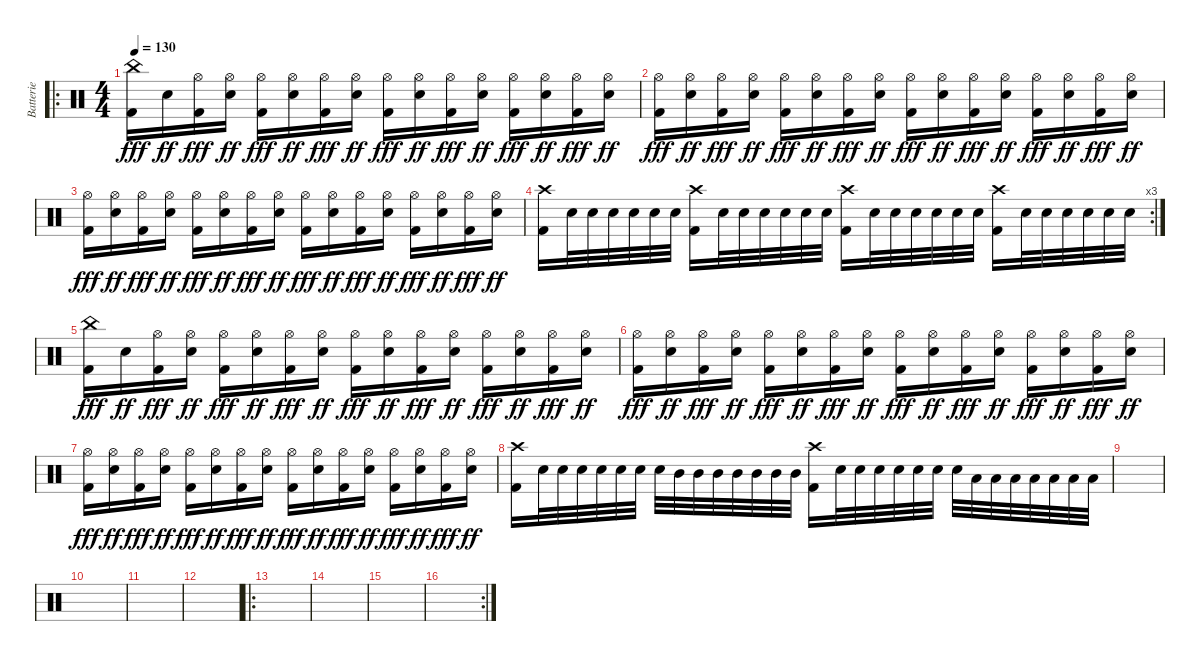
\track ("Batterie" "Batterie") {instrument percussion}
\staff {score}
\articulation defaults
\ro
\ts (4 4)
\tempo 130
\clef neutral
\ks c
("Kick (hit) 2" "China (hit)").16{dy fff} "Snare (hit) 2".16{dy ff} ("Kick (hit) 2" "Hi-Hat (open)").16{dy fff} ("Snare (hit) 2" "Hi-Hat (open)").16{dy ff} ("Kick (hit) 2" "Hi-Hat (open)").16{dy fff} ("Snare (hit) 2" "Hi-Hat (open)").16{dy ff} ("Kick (hit) 2" "Hi-Hat (open)").16{dy fff} ("Snare (hit) 2" "Hi-Hat (open)").16{dy ff} ("Kick (hit) 2" "Hi-Hat (open)").16{dy fff} ("Snare (hit) 2" "Hi-Hat (open)").16{dy ff} ("Kick (hit) 2" "Hi-Hat (open)").16{dy fff} ("Snare (hit) 2" "Hi-Hat (open)").16{dy ff} ("Kick (hit) 2" "Hi-Hat (open)").16{dy fff} ("Snare (hit) 2" "Hi-Hat (open)").16{dy ff} ("Kick (hit) 2" "Hi-Hat (open)").16{dy fff} ("Snare (hit) 2" "Hi-Hat (open)").16{dy ff} |
("Kick (hit) 2" "Hi-Hat (open)").16{dy fff} ("Snare (hit) 2" "Hi-Hat (open)").16{dy ff} ("Kick (hit) 2" "Hi-Hat (open)").16{dy fff} ("Snare (hit) 2" "Hi-Hat (open)").16{dy ff} ("Kick (hit) 2" "Hi-Hat (open)").16{dy fff} ("Snare (hit) 2" "Hi-Hat (open)").16{dy ff} ("Kick (hit) 2" "Hi-Hat (open)").16{dy fff} ("Snare (hit) 2" "Hi-Hat (open)").16{dy ff} ("Kick (hit) 2" "Hi-Hat (open)").16{dy fff} ("Snare (hit) 2" "Hi-Hat (open)").16{dy ff} ("Kick (hit) 2" "Hi-Hat (open)").16{dy fff} ("Snare (hit) 2" "Hi-Hat (open)").16{dy ff} ("Kick (hit) 2" "Hi-Hat (open)").16{dy fff} ("Snare (hit) 2" "Hi-Hat (open)").16{dy ff} ("Kick (hit) 2" "Hi-Hat (open)").16{dy fff} ("Snare (hit) 2" "Hi-Hat (open)").16{dy ff} |
("Kick (hit) 2" "Hi-Hat (open)").16{dy fff} ("Snare (hit) 2" "Hi-Hat (open)").16{dy ff} ("Kick (hit) 2" "Hi-Hat (open)").16{dy fff} ("Snare (hit) 2" "Hi-Hat (open)").16{dy ff} ("Kick (hit) 2" "Hi-Hat (open)").16{dy fff} ("Snare (hit) 2" "Hi-Hat (open)").16{dy ff} ("Kick (hit) 2" "Hi-Hat (open)").16{dy fff} ("Snare (hit) 2" "Hi-Hat (open)").16{dy ff} ("Kick (hit) 2" "Hi-Hat (open)").16{dy fff} ("Snare (hit) 2" "Hi-Hat (open)").16{dy ff} ("Kick (hit) 2" "Hi-Hat (open)").16{dy fff} ("Snare (hit) 2" "Hi-Hat (open)").16{dy ff} ("Kick (hit) 2" "Hi-Hat (open)").16{dy fff} ("Snare (hit) 2" "Hi-Hat (open)").16{dy ff} ("Kick (hit) 2" "Hi-Hat (open)").16{dy fff} ("Snare (hit) 2" "Hi-Hat (open)").16{dy ff} |
\rc 3
("Kick (hit) 2" "Crash high (hit)").16 "Snare (hit) 2".32 "Snare (hit) 2".32 "Snare (hit) 2".32 "Snare (hit) 2".32 "Snare (hit) 2".32 "Snare (hit) 2".32 ("Kick (hit) 2" "Crash high (hit)").16 "Snare (hit) 2".32 "Snare (hit) 2".32 "Snare (hit) 2".32 "Snare (hit) 2".32 "Snare (hit) 2".32 "Snare (hit) 2".32 ("Kick (hit) 2" "Crash high (hit)").16 "Snare (hit) 2".32 "Snare (hit) 2".32 "Snare (hit) 2".32 "Snare (hit) 2".32 "Snare (hit) 2".32 "Snare (hit) 2".32 ("Kick (hit) 2" "Crash high (hit)").16 "Snare (hit) 2".32 "Snare (hit) 2".32 "Snare (hit) 2".32 "Snare (hit) 2".32 "Snare (hit) 2".32 "Snare (hit) 2".32 |
("Kick (hit) 2" "China (hit)").16{dy fff} "Snare (hit) 2".16{dy ff} ("Kick (hit) 2" "Hi-Hat (open)").16{dy fff} ("Snare (hit) 2" "Hi-Hat (open)").16{dy ff} ("Kick (hit) 2" "Hi-Hat (open)").16{dy fff} ("Snare (hit) 2" "Hi-Hat (open)").16{dy ff} ("Kick (hit) 2" "Hi-Hat (open)").16{dy fff} ("Snare (hit) 2" "Hi-Hat (open)").16{dy ff} ("Kick (hit) 2" "Hi-Hat (open)").16{dy fff} ("Snare (hit) 2" "Hi-Hat (open)").16{dy ff} ("Kick (hit) 2" "Hi-Hat (open)").16{dy fff} ("Snare (hit) 2" "Hi-Hat (open)").16{dy ff} ("Kick (hit) 2" "Hi-Hat (open)").16{dy fff} ("Snare (hit) 2" "Hi-Hat (open)").16{dy ff} ("Kick (hit) 2" "Hi-Hat (open)").16{dy fff} ("Snare (hit) 2" "Hi-Hat (open)").16{dy ff} |
("Kick (hit) 2" "Hi-Hat (open)").16{dy fff} ("Snare (hit) 2" "Hi-Hat (open)").16{dy ff} ("Kick (hit) 2" "Hi-Hat (open)").16{dy fff} ("Snare (hit) 2" "Hi-Hat (open)").16{dy ff} ("Kick (hit) 2" "Hi-Hat (open)").16{dy fff} ("Snare (hit) 2" "Hi-Hat (open)").16{dy ff} ("Kick (hit) 2" "Hi-Hat (open)").16{dy fff} ("Snare (hit) 2" "Hi-Hat (open)").16{dy ff} ("Kick (hit) 2" "Hi-Hat (open)").16{dy fff} ("Snare (hit) 2" "Hi-Hat (open)").16{dy ff} ("Kick (hit) 2" "Hi-Hat (open)").16{dy fff} ("Snare (hit) 2" "Hi-Hat (open)").16{dy ff} ("Kick (hit) 2" "Hi-Hat (open)").16{dy fff} ("Snare (hit) 2" "Hi-Hat (open)").16{dy ff} ("Kick (hit) 2" "Hi-Hat (open)").16{dy fff} ("Snare (hit) 2" "Hi-Hat (open)").16{dy ff} |
("Kick (hit) 2" "Hi-Hat (open)").16{dy fff} ("Snare (hit) 2" "Hi-Hat (open)").16{dy ff} ("Kick (hit) 2" "Hi-Hat (open)").16{dy fff} ("Snare (hit) 2" "Hi-Hat (open)").16{dy ff} ("Kick (hit) 2" "Hi-Hat (open)").16{dy fff} ("Snare (hit) 2" "Hi-Hat (open)").16{dy ff} ("Kick (hit) 2" "Hi-Hat (open)").16{dy fff} ("Snare (hit) 2" "Hi-Hat (open)").16{dy ff} ("Kick (hit) 2" "Hi-Hat (open)").16{dy fff} ("Snare (hit) 2" "Hi-Hat (open)").16{dy ff} ("Kick (hit) 2" "Hi-Hat (open)").16{dy fff} ("Snare (hit) 2" "Hi-Hat (open)").16{dy ff} ("Kick (hit) 2" "Hi-Hat (open)").16{dy fff} ("Snare (hit) 2" "Hi-Hat (open)").16{dy ff} ("Kick (hit) 2" "Hi-Hat (open)").16{dy fff} ("Snare (hit) 2" "Hi-Hat (open)").16{dy ff} |
("Kick (hit) 2" "Crash high (hit)").16 "Snare (hit) 2".32 "Snare (hit) 2".32 "Snare (hit) 2".32 "Snare (hit) 2".32 "Snare (hit) 2".32 "Snare (hit) 2".32 "Snare (hit) 2".32 "Mid Tom (hit)".32 "Mid Tom (hit)".32 "Mid Tom (hit)".32 "Mid Tom (hit)".32 "Mid Tom (hit)".32 "Mid Tom (hit)".32 "Mid Tom (hit)".32 ("Kick (hit) 2" "Crash high (hit)").16 "Snare (hit) 2".32 "Snare (hit) 2".32 "Snare (hit) 2".32 "Snare (hit) 2".32 "Snare (hit) 2".32 "Snare (hit) 2".32 "Snare (hit) 2".32 "Low Tom (hit)".32 "Low Tom (hit)".32 "Low Tom (hit)".32 "Low Tom (hit)".32 "Low Tom (hit)".32 "Low Tom (hit)".32 "Low Tom (hit)".32 |
|
|
|
|
\ro
|
|
|
\rc 2
